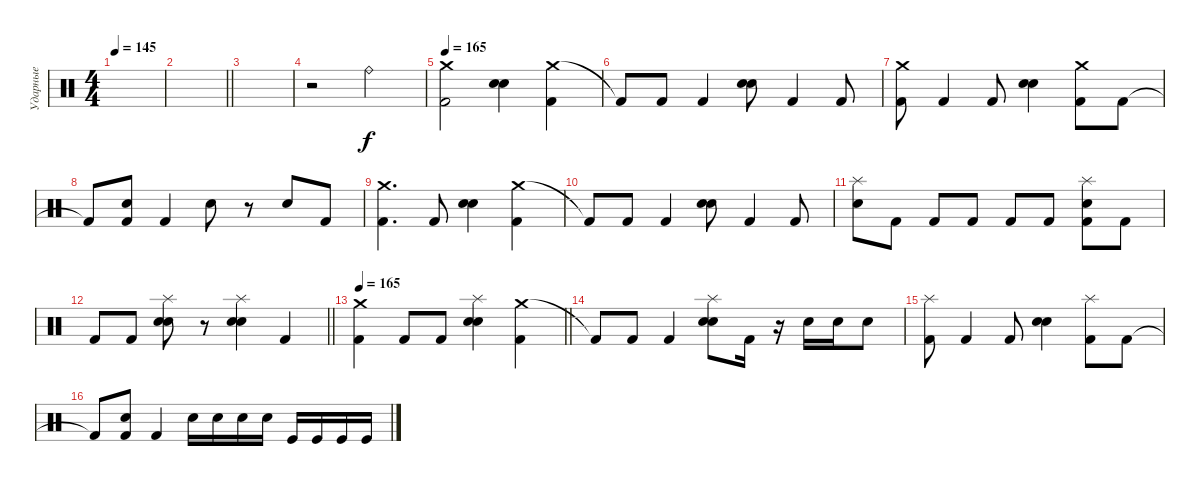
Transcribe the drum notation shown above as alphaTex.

\track ("Ударные" "Ударные") {instrument percussion}
\staff {score}
\articulation defaults
\ts (4 4)
\tempo 145
\clef neutral
\ks c
|
\barLineRight lightlight
|
|
r.2 "Ride (bell)".2 |
\tempo 165
("Crash medium (hit)" "Kick (hit) 2").2 ("Electric Snare (hit)" "Snare (hit) 2").4 ("Crash medium (hit)" "Kick (hit) 2").4 |
"Kick (hit) 2"{t}.8 "Kick (hit) 2".8 "Kick (hit) 2".4 ("Electric Snare (hit)" "Snare (hit) 2").8 "Kick (hit) 2".4 "Kick (hit) 2".8 |
("Crash medium (hit)" "Kick (hit) 2").8 "Kick (hit) 2".4 "Kick (hit) 2".8 ("Electric Snare (hit)" "Snare (hit) 2").4 ("Crash medium (hit)" "Kick (hit) 2").8 "Kick (hit) 2".8 |
"Kick (hit) 2"{t}.8 ("Electric Snare (hit)" "Kick (hit) 2").8 "Kick (hit) 2".4 "Electric Snare (hit)".8 r.8 "Electric Snare (hit)".8 "Kick (hit) 2".8 |
("Crash medium (hit)" "Kick (hit) 2").4{d} "Kick (hit) 2".8 ("Electric Snare (hit)" "Snare (hit) 2").4 ("Crash medium (hit)" "Kick (hit) 2").4 |
"Kick (hit) 2"{t}.8 "Kick (hit) 2".8 "Kick (hit) 2".4 ("Electric Snare (hit)" "Snare (hit) 2").8 "Kick (hit) 2".4 "Kick (hit) 2".8 |
("Splash (hit)" "Electric Snare (hit)").8 "Kick (hit) 2".8 "Kick (hit) 2".8 "Kick (hit) 2".8 "Kick (hit) 2".8 "Kick (hit) 2".8 ("Splash (hit)" "Electric Snare (hit)" "Kick (hit) 2").8 "Kick (hit) 2".8 |
\barLineRight lightlight "Kick (hit) 2".8 "Kick (hit) 2".8
("Splash (hit)" "Electric Snare (hit)" "Snare (hit) 2").8 r.8 ("Splash (hit)" "Electric Snare (hit)" "Snare (hit) 2").4 "Kick (hit) 2".4 |
\tempo 165
\barLineRight lightlight
("Crash medium (hit)" "Kick (hit) 2").4 "Kick (hit) 2".8 "Kick (hit) 2".8 ("Splash (hit)" "Electric Snare (hit)" "Snare (hit) 2").4 ("Crash medium (hit)" "Kick (hit) 2").4 |
"Kick (hit) 2"{t}.8 "Kick (hit) 2".8 "Kick (hit) 2".4 ("Splash (hit)" "Electric Snare (hit)" "Snare (hit) 2").8 "Kick (hit) 2".16 r.16 "Electric Snare (hit)".16 "Electric Snare (hit)".16 "Electric Snare (hit)".8 |
("Splash (hit)" "Kick (hit) 2").8 "Kick (hit) 2".4 "Kick (hit) 2".8 ("Electric Snare (hit)" "Snare (hit) 2").4 ("Splash (hit)" "Kick (hit) 2").8 "Kick (hit) 2".8 |
"Kick (hit) 2"{t}.8 ("Electric Snare (hit)" "Kick (hit) 2").8 "Kick (hit) 2".4 "Electric Snare (hit)".16 "Electric Snare (hit)".16 "Electric Snare (hit)".16 "Electric Snare (hit)".16 "Kick (hit)".16 "Kick (hit)".16 "Kick (hit)".16 "Kick (hit)".16
